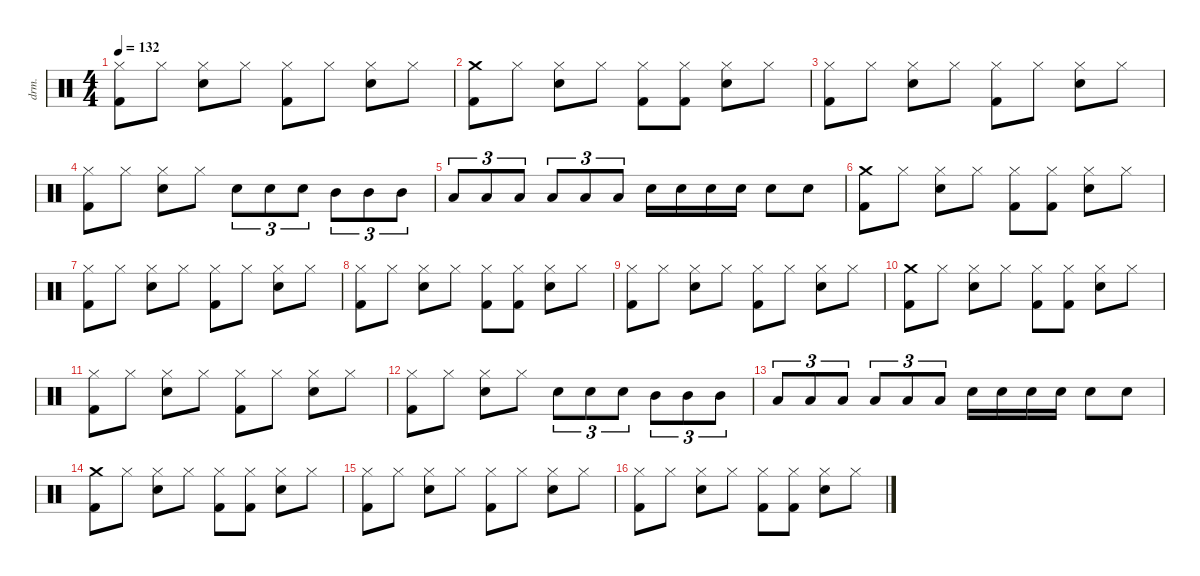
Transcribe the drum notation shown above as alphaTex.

\defaultSystemsLayout 4
\hideDynamics
\bracketExtendMode nobrackets
\track ("敲击乐器" "drm.") {instrument percussion}
\staff {score}
\articulation defaults
\ts (4 4)
\tempo 132
\clef neutral
\ks c
("Hi-Hat (closed)" "Kick (hit) 2").8{dy f} "Hi-Hat (closed)".8 ("Hi-Hat (closed)" "Snare (hit) 2").8 "Hi-Hat (closed)".8 ("Hi-Hat (closed)" "Kick (hit) 2").8 "Hi-Hat (closed)".8 ("Hi-Hat (closed)" "Snare (hit) 2").8 "Hi-Hat (closed)".8 |
("Crash medium (hit)" "Kick (hit) 2").8 "Hi-Hat (closed)".8 ("Hi-Hat (closed)" "Snare (hit) 2").8 "Hi-Hat (closed)".8 ("Hi-Hat (closed)" "Kick (hit) 2").8 ("Hi-Hat (closed)" "Kick (hit) 2").8 ("Hi-Hat (closed)" "Snare (hit) 2").8 "Hi-Hat (closed)".8 |
("Hi-Hat (closed)" "Kick (hit) 2").8 "Hi-Hat (closed)".8 ("Hi-Hat (closed)" "Snare (hit) 2").8 "Hi-Hat (closed)".8 ("Hi-Hat (closed)" "Kick (hit) 2").8 "Hi-Hat (closed)".8 ("Hi-Hat (closed)" "Snare (hit) 2").8 "Hi-Hat (closed)".8 |
("Hi-Hat (closed)" "Kick (hit) 2").8 "Hi-Hat (closed)".8 ("Hi-Hat (closed)" "Snare (hit) 2").8 "Hi-Hat (closed)".8 "Snare (hit) 2".8{tu (3 2)} "Snare (hit) 2".8{tu (3 2)} "Snare (hit) 2".8{tu (3 2)} "Mid Tom (hit)".8{tu (3 2)} "Mid Tom (hit)".8{tu (3 2)} "Mid Tom (hit)".8{tu (3 2)} |
"Low Tom (hit)".8{tu (3 2)} "Low Tom (hit)".8{tu (3 2)} "Low Tom (hit)".8{tu (3 2)} "Low Floor Tom (hit)".8{tu (3 2)} "Low Floor Tom (hit)".8{tu (3 2)} "Low Floor Tom (hit)".8{tu (3 2)} "Snare (hit) 2".16 "Snare (hit) 2".16 "Snare (hit) 2".16 "Snare (hit) 2".16 "Snare (hit) 2".8 "Snare (hit) 2".8 |
("Crash medium (hit)" "Kick (hit) 2").8 "Hi-Hat (closed)".8 ("Hi-Hat (closed)" "Snare (hit) 2").8 "Hi-Hat (closed)".8 ("Hi-Hat (closed)" "Kick (hit) 2").8 ("Hi-Hat (closed)" "Kick (hit) 2").8 ("Hi-Hat (closed)" "Snare (hit) 2").8 "Hi-Hat (closed)".8 |
("Hi-Hat (closed)" "Kick (hit) 2").8 "Hi-Hat (closed)".8 ("Hi-Hat (closed)" "Snare (hit) 2").8 "Hi-Hat (closed)".8 ("Hi-Hat (closed)" "Kick (hit) 2").8 "Hi-Hat (closed)".8 ("Hi-Hat (closed)" "Snare (hit) 2").8 "Hi-Hat (closed)".8 |
("Hi-Hat (closed)" "Kick (hit) 2").8 "Hi-Hat (closed)".8 ("Hi-Hat (closed)" "Snare (hit) 2").8 "Hi-Hat (closed)".8 ("Hi-Hat (closed)" "Kick (hit) 2").8 ("Hi-Hat (closed)" "Kick (hit) 2").8 ("Hi-Hat (closed)" "Snare (hit) 2").8 "Hi-Hat (closed)".8 |
("Hi-Hat (closed)" "Kick (hit) 2").8 "Hi-Hat (closed)".8 ("Hi-Hat (closed)" "Snare (hit) 2").8 "Hi-Hat (closed)".8 ("Hi-Hat (closed)" "Kick (hit) 2").8 "Hi-Hat (closed)".8 ("Hi-Hat (closed)" "Snare (hit) 2").8 "Hi-Hat (closed)".8 |
("Crash medium (hit)" "Kick (hit) 2").8 "Hi-Hat (closed)".8 ("Hi-Hat (closed)" "Snare (hit) 2").8 "Hi-Hat (closed)".8 ("Hi-Hat (closed)" "Kick (hit) 2").8 ("Hi-Hat (closed)" "Kick (hit) 2").8 ("Hi-Hat (closed)" "Snare (hit) 2").8 "Hi-Hat (closed)".8 |
("Hi-Hat (closed)" "Kick (hit) 2").8 "Hi-Hat (closed)".8 ("Hi-Hat (closed)" "Snare (hit) 2").8 "Hi-Hat (closed)".8 ("Hi-Hat (closed)" "Kick (hit) 2").8 "Hi-Hat (closed)".8 ("Hi-Hat (closed)" "Snare (hit) 2").8 "Hi-Hat (closed)".8 |
("Hi-Hat (closed)" "Kick (hit) 2").8 "Hi-Hat (closed)".8 ("Hi-Hat (closed)" "Snare (hit) 2").8 "Hi-Hat (closed)".8 "Snare (hit) 2".8{tu (3 2)} "Snare (hit) 2".8{tu (3 2)} "Snare (hit) 2".8{tu (3 2)} "Mid Tom (hit)".8{tu (3 2)} "Mid Tom (hit)".8{tu (3 2)} "Mid Tom (hit)".8{tu (3 2)} |
"Low Tom (hit)".8{tu (3 2)} "Low Tom (hit)".8{tu (3 2)} "Low Tom (hit)".8{tu (3 2)} "Low Floor Tom (hit)".8{tu (3 2)} "Low Floor Tom (hit)".8{tu (3 2)} "Low Floor Tom (hit)".8{tu (3 2)} "Snare (hit) 2".16 "Snare (hit) 2".16 "Snare (hit) 2".16 "Snare (hit) 2".16 "Snare (hit) 2".8 "Snare (hit) 2".8 |
("Crash medium (hit)" "Kick (hit) 2").8 "Hi-Hat (closed)".8 ("Hi-Hat (closed)" "Snare (hit) 2").8 "Hi-Hat (closed)".8 ("Hi-Hat (closed)" "Kick (hit) 2").8 ("Hi-Hat (closed)" "Kick (hit) 2").8 ("Hi-Hat (closed)" "Snare (hit) 2").8 "Hi-Hat (closed)".8 |
("Hi-Hat (closed)" "Kick (hit) 2").8 "Hi-Hat (closed)".8 ("Hi-Hat (closed)" "Snare (hit) 2").8 "Hi-Hat (closed)".8 ("Hi-Hat (closed)" "Kick (hit) 2").8 "Hi-Hat (closed)".8 ("Hi-Hat (closed)" "Snare (hit) 2").8 "Hi-Hat (closed)".8 |
("Hi-Hat (closed)" "Kick (hit) 2").8 "Hi-Hat (closed)".8 ("Hi-Hat (closed)" "Snare (hit) 2").8 "Hi-Hat (closed)".8 ("Hi-Hat (closed)" "Kick (hit) 2").8 ("Hi-Hat (closed)" "Kick (hit) 2").8 ("Hi-Hat (closed)" "Snare (hit) 2").8 "Hi-Hat (closed)".8
